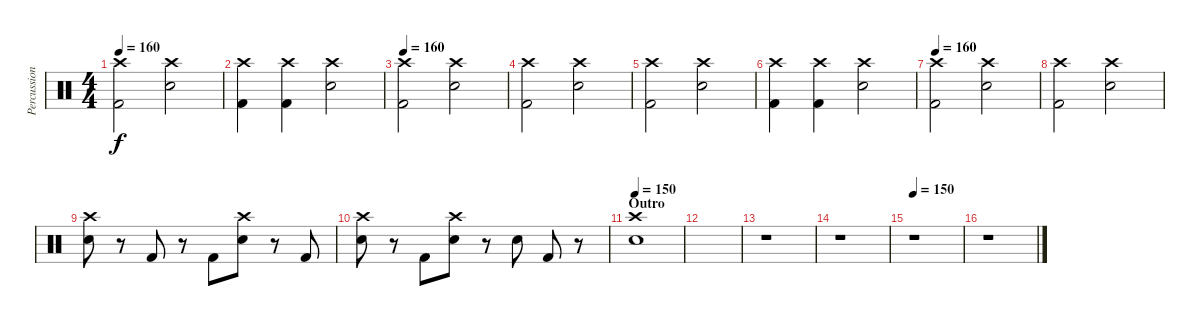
\track ("Percussion [Patrick Wilson]" "Percussion") {instrument percussion}
\staff {score}
\articulation defaults
\ts (4 4)
\tempo 160
\clef neutral
\ks c
("Crash high (hit)" "Kick (hit) 2").2{dy f} ("Crash high (hit)" "Snare (hit) 2").2 |
("Crash high (hit)" "Kick (hit) 2").4 ("Crash high (hit)" "Kick (hit) 2").4 ("Crash high (hit)" "Snare (hit) 2").2 |
\tempo 160
("Crash high (hit)" "Kick (hit) 2").2{volume 13} ("Crash high (hit)" "Snare (hit) 2").2 |
("Crash high (hit)" "Kick (hit) 2").2 ("Crash high (hit)" "Snare (hit) 2").2 |
("Crash high (hit)" "Kick (hit) 2").2 ("Crash high (hit)" "Snare (hit) 2").2 |
("Crash high (hit)" "Kick (hit) 2").4 ("Crash high (hit)" "Kick (hit) 2").4 ("Crash high (hit)" "Snare (hit) 2").2 |
\tempo 160
("Crash high (hit)" "Kick (hit) 2").2{volume 13} ("Crash high (hit)" "Snare (hit) 2").2 |
("Crash high (hit)" "Kick (hit) 2").2 ("Crash high (hit)" "Snare (hit) 2").2 |
("Crash high (hit)" "Snare (hit) 2").8 r.8 "Kick (hit) 2".8 r.8 "Kick (hit) 2".8 ("Crash high (hit)" "Snare (hit) 2").8 r.8 "Kick (hit) 2".8 |
("Crash high (hit)" "Snare (hit) 2").8 r.8 "Kick (hit) 2".8 ("Crash high (hit)" "Snare (hit) 2").8 r.8 "Snare (hit) 2".8 "Kick (hit) 2".8 r.8 |
\section ("" "Outro")
\tempo 150
("Crash high (hit)" "Snare (hit) 2").1{volume 16} |
|
r.1 |
r.1 |
\tempo 150
r.1 |
r.1
